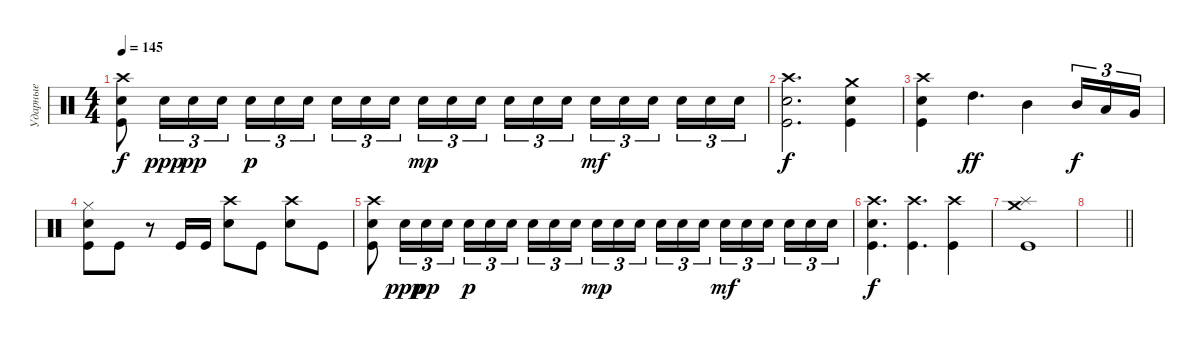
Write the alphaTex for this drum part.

\track ("Ударные" "Ударные") {instrument percussion}
\staff {score}
\articulation defaults
\ts (4 4)
\tempo 145
\clef neutral
\ks c
("Crash high (hit)" "Snare (hit) 2" "Kick (hit)").8{dy f} "Snare (hit) 2".16{tu (3 2) dy ppp} "Snare (hit) 2".16{tu (3 2) dy pp} "Snare (hit) 2".16{tu (3 2)} "Snare (hit) 2".16{tu (3 2) dy p} "Snare (hit) 2".16{tu (3 2)} "Snare (hit) 2".16{tu (3 2) beam splitsecondary} "Snare (hit) 2".16{tu (3 2)} "Snare (hit) 2".16{tu (3 2)} "Snare (hit) 2".16{tu (3 2)} "Snare (hit) 2".16{tu (3 2) dy mp} "Snare (hit) 2".16{tu (3 2)} "Snare (hit) 2".16{tu (3 2) beam splitsecondary} "Snare (hit) 2".16{tu (3 2)} "Snare (hit) 2".16{tu (3 2)} "Snare (hit) 2".16{tu (3 2)} "Snare (hit) 2".16{tu (3 2) dy mf} "Snare (hit) 2".16{tu (3 2)} "Snare (hit) 2".16{tu (3 2) beam splitsecondary} "Snare (hit) 2".16{tu (3 2)} "Snare (hit) 2".16{tu (3 2)} "Snare (hit) 2".16{tu (3 2)} |
("Crash high (hit)" "Snare (hit) 2" "Kick (hit)").2{d dy f} ("Crash medium (hit)" "Snare (hit) 2" "Kick (hit)").4 |
("Crash high (hit)" "Snare (hit) 2" "Kick (hit)").4 "High Tom (hit)".4{d dy ff} "Mid Tom (hit)".4 "Mid Tom (hit)".16{tu (3 2) dy f} "Low Tom (hit)".16{tu (3 2)} "Very Low Tom (hit)".16{tu (3 2)} |
("Hi-Hat (closed)" "Snare (hit) 2" "Kick (hit)").8 "Kick (hit)".8 r.8 "Kick (hit)".16 "Kick (hit)".16 ("Crash high (hit)" "Snare (hit) 2").8 "Kick (hit)".8 ("Crash high (hit)" "Snare (hit) 2").8 "Kick (hit)".8 |
("Crash high (hit)" "Snare (hit) 2" "Kick (hit)").8 "Snare (hit) 2".16{tu (3 2) dy ppp} "Snare (hit) 2".16{tu (3 2) dy pp} "Snare (hit) 2".16{tu (3 2)} "Snare (hit) 2".16{tu (3 2) dy p} "Snare (hit) 2".16{tu (3 2)} "Snare (hit) 2".16{tu (3 2) beam splitsecondary} "Snare (hit) 2".16{tu (3 2)} "Snare (hit) 2".16{tu (3 2)} "Snare (hit) 2".16{tu (3 2)} "Snare (hit) 2".16{tu (3 2) dy mp} "Snare (hit) 2".16{tu (3 2)} "Snare (hit) 2".16{tu (3 2) beam splitsecondary} "Snare (hit) 2".16{tu (3 2)} "Snare (hit) 2".16{tu (3 2)} "Snare (hit) 2".16{tu (3 2)} "Snare (hit) 2".16{tu (3 2) dy mf} "Snare (hit) 2".16{tu (3 2)} "Snare (hit) 2".16{tu (3 2) beam splitsecondary} "Snare (hit) 2".16{tu (3 2)} "Snare (hit) 2".16{tu (3 2)} "Snare (hit) 2".16{tu (3 2)} |
("Crash high (hit)" "Snare (hit) 2" "Kick (hit)").4{d dy f} ("Crash high (hit)" "Kick (hit)").4{d} ("Crash high (hit)" "Kick (hit)").4 |
("Crash medium (hit)" "Splash (hit)" "Kick (hit)").1 |
\barLineRight lightlight
